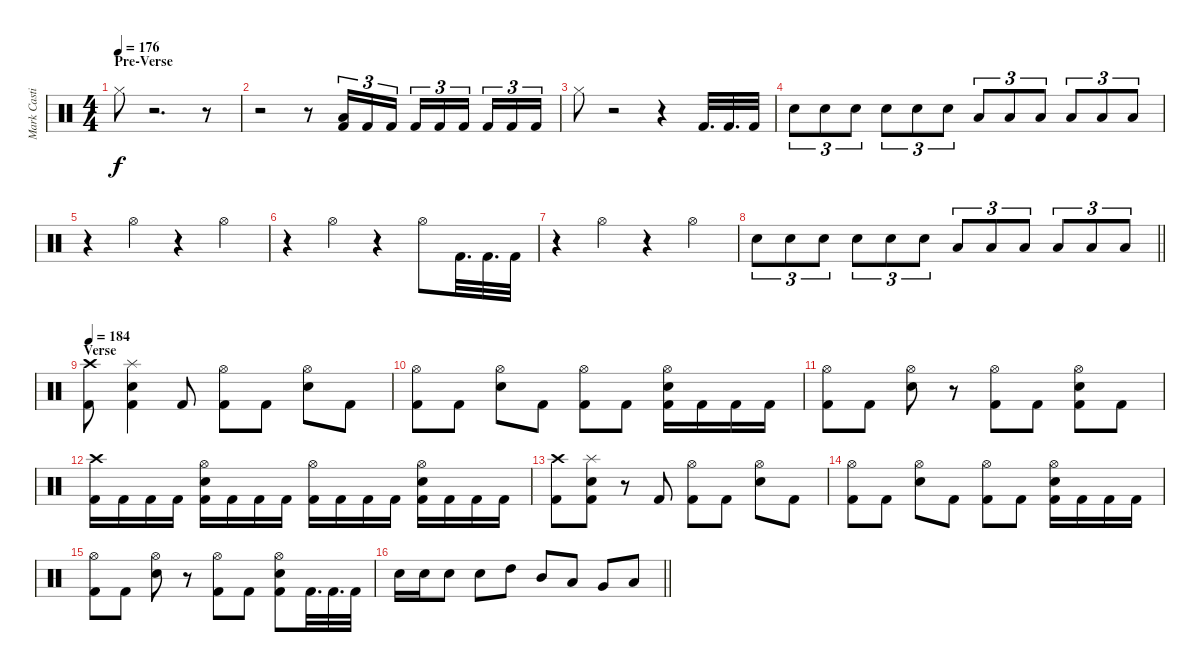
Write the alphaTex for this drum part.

\track ("Mark Castillo" "Mark Casti") {instrument percussion}
\staff {score}
\articulation defaults
\ts (4 4)
\section ("" "Pre-Verse")
\tempo 176
\clef neutral
\ks c "Hi-Hat (closed)".8{dy f}
r.2{d} r.8 |
r.2 r.8 ("Low Floor Tom (hit)" "Kick (hit) 2").16{tu (3 2)} "Kick (hit) 2".16{tu (3 2)} "Kick (hit) 2".16{tu (3 2)} "Kick (hit) 2".16{tu (3 2)} "Kick (hit) 2".16{tu (3 2)} "Kick (hit) 2".16{tu (3 2) beam splitsecondary} "Kick (hit) 2".16{tu (3 2)} "Kick (hit) 2".16{tu (3 2)} "Kick (hit) 2".16{tu (3 2)} |
"Hi-Hat (closed)".8 r.2 r.4 "Kick (hit) 2".32{d} "Kick (hit) 2".32{d} "Kick (hit) 2".32 |
"Electric Snare (hit)".8{tu (3 2)} "Electric Snare (hit)".8{tu (3 2)} "Electric Snare (hit)".8{tu (3 2)} "Electric Snare (hit)".8{tu (3 2)} "Electric Snare (hit)".8{tu (3 2)} "Electric Snare (hit)".8{tu (3 2)} "Low Tom (hit)".8{tu (3 2)} "Low Tom (hit)".8{tu (3 2)} "Low Tom (hit)".8{tu (3 2)} "Low Floor Tom (hit)".8{tu (3 2)} "Low Floor Tom (hit)".8{tu (3 2)} "Low Floor Tom (hit)".8{tu (3 2)} |
r.4 "Hi-Hat (open)".4 r.4 "Hi-Hat (open)".4 |
r.4 "Hi-Hat (open)".4 r.4 "Hi-Hat (open)".8 "Kick (hit) 2".32{d} "Kick (hit) 2".32{d} "Kick (hit) 2".32 |
r.4 "Hi-Hat (open)".4 r.4 "Hi-Hat (open)".4 |
\barLineRight lightlight "Electric Snare (hit)".8{tu (3 2)} "Electric Snare (hit)".8{tu (3 2)} "Electric Snare (hit)".8{tu (3 2)} "Electric Snare (hit)".8{tu (3 2)} "Electric Snare (hit)".8{tu (3 2)} "Electric Snare (hit)".8{tu (3 2)} "Low Tom (hit)".8{tu (3 2)} "Low Tom (hit)".8{tu (3 2)} "Low Tom (hit)".8{tu (3 2)} "Low Floor Tom (hit)".8{tu (3 2)} "Low Floor Tom (hit)".8{tu (3 2)} "Low Floor Tom (hit)".8{tu (3 2)}
|
\section ("" "Verse")
\tempo 184
("Crash high (hit)" "Kick (hit) 2").8 ("Splash (hit)" "Electric Snare (hit)" "Kick (hit) 2").4 "Kick (hit) 2".8 ("Hi-Hat (open)" "Kick (hit) 2").8 "Kick (hit) 2".8 ("Hi-Hat (open)" "Electric Snare (hit)").8 "Kick (hit) 2".8 |
("Hi-Hat (open)" "Kick (hit) 2").8 "Kick (hit) 2".8 ("Hi-Hat (open)" "Electric Snare (hit)").8 "Kick (hit) 2".8 ("Hi-Hat (open)" "Kick (hit) 2").8 "Kick (hit) 2".8 ("Hi-Hat (open)" "Electric Snare (hit)" "Kick (hit) 2").16 "Kick (hit) 2".16 "Kick (hit) 2".16 "Kick (hit) 2".16 |
("Hi-Hat (open)" "Kick (hit) 2").8 "Kick (hit) 2".8 ("Hi-Hat (open)" "Electric Snare (hit)").8 r.8 ("Hi-Hat (open)" "Kick (hit) 2").8 "Kick (hit) 2".8 ("Hi-Hat (open)" "Electric Snare (hit)" "Kick (hit) 2").8 "Kick (hit) 2".8 |
("Crash high (hit)" "Kick (hit) 2").16 "Kick (hit) 2".16 "Kick (hit) 2".16 "Kick (hit) 2".16 ("Hi-Hat (open)" "Electric Snare (hit)" "Kick (hit) 2").16 "Kick (hit) 2".16 "Kick (hit) 2".16 "Kick (hit) 2".16 ("Hi-Hat (open)" "Kick (hit) 2").16 "Kick (hit) 2".16 "Kick (hit) 2".16 "Kick (hit) 2".16 ("Hi-Hat (open)" "Electric Snare (hit)" "Kick (hit) 2").16 "Kick (hit) 2".16 "Kick (hit) 2".16 "Kick (hit) 2".16 |
("Crash high (hit)" "Kick (hit) 2").8 ("Splash (hit)" "Electric Snare (hit)" "Kick (hit) 2").8 r.8 "Kick (hit) 2".8 ("Hi-Hat (open)" "Kick (hit) 2").8 "Kick (hit) 2".8 ("Hi-Hat (open)" "Electric Snare (hit)").8 "Kick (hit) 2".8 |
("Hi-Hat (open)" "Kick (hit) 2").8 "Kick (hit) 2".8 ("Hi-Hat (open)" "Electric Snare (hit)").8 "Kick (hit) 2".8 ("Hi-Hat (open)" "Kick (hit) 2").8 "Kick (hit) 2".8 ("Hi-Hat (open)" "Electric Snare (hit)" "Kick (hit) 2").16 "Kick (hit) 2".16 "Kick (hit) 2".16 "Kick (hit) 2".16 |
("Hi-Hat (open)" "Kick (hit) 2").8 "Kick (hit) 2".8 ("Hi-Hat (open)" "Electric Snare (hit)").8 r.8 ("Hi-Hat (open)" "Kick (hit) 2").8 "Kick (hit) 2".8 ("Hi-Hat (open)" "Electric Snare (hit)" "Kick (hit) 2").8 "Kick (hit) 2".32{d} "Kick (hit) 2".32{d} "Kick (hit) 2".32 |
\barLineRight lightlight "Electric Snare (hit)".16 "Electric Snare (hit)".16 "Electric Snare (hit)".8 "Electric Snare (hit)".8 "High Tom (hit)".8 "Mid Tom (hit)".8 "Low Tom (hit)".8 "Very Low Tom (hit)".8 "Low Floor Tom (hit)".8
